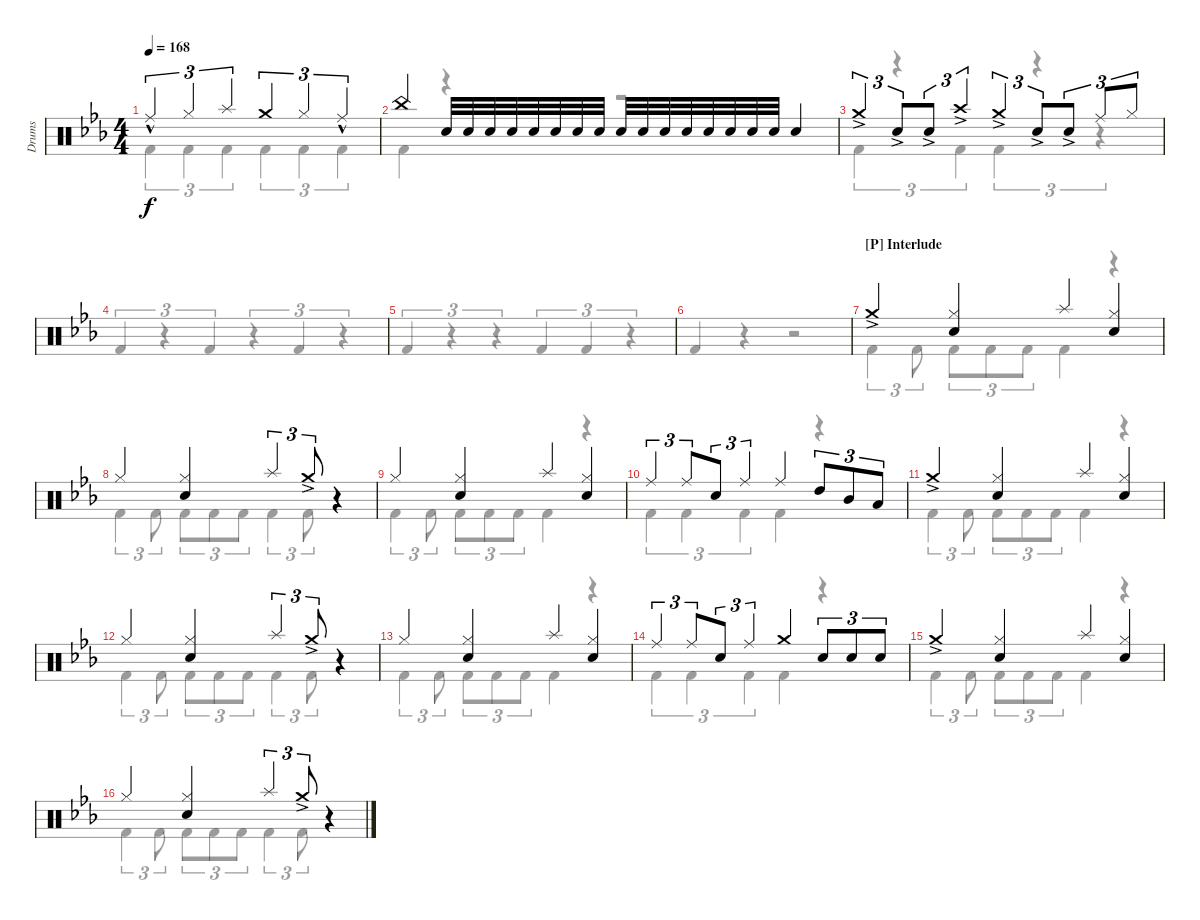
\defaultSystemsLayout 4
\bracketExtendMode groupsimilarinstruments
\otherSystemsTrackNameOrientation horizontal
\track ("Drums" "Drums") {instrument percussion}
\staff {score}
\articulation defaults
\voice
\ts (4 4)
\tempo 168
\clef neutral
\ks eb "Ride (middle)"{hac acc forcenatural}.4{tu (3 2) dy f beam Up} "Hi-Hat (closed)"{acc forcenatural}.4{tu (3 2) beam Up} "Splash (hit)"{acc forcenatural}.4{tu (3 2) beam Up} "Crash medium (hit)"{acc forcenatural}.4{tu (3 2) beam Up} "Hi-Hat (closed)"{acc forcenatural}.4{tu (3 2) beam Up} "Ride (middle)"{hac acc forcenatural}.4{tu (3 2) beam Up}
|
"China (hit)"{acc forcenatural}.4{beam Up} "Snare (hit) 2"{acc forcenatural}.32{beam Up} "Snare (hit) 2"{acc forcenatural}.32{beam Up} "Snare (hit) 2"{acc forcenatural}.32{beam Up} "Snare (hit) 2"{acc forcenatural}.32{beam Up} "Snare (hit) 2"{acc forcenatural}.32{beam Up} "Snare (hit) 2"{acc forcenatural}.32{beam Up} "Snare (hit) 2"{acc forcenatural}.32{beam Up} "Snare (hit) 2"{acc forcenatural}.32{beam Up} "Snare (hit) 2"{acc forcenatural}.32{beam Up} "Snare (hit) 2"{acc forcenatural}.32{beam Up} "Snare (hit) 2"{acc forcenatural}.32{beam Up} "Snare (hit) 2"{acc forcenatural}.32{beam Up} "Snare (hit) 2"{acc forcenatural}.32{beam Up} "Snare (hit) 2"{acc forcenatural}.32{beam Up} "Snare (hit) 2"{acc forcenatural}.32{beam Up} "Snare (hit) 2"{acc forcenatural}.32{beam Up} "Snare (hit) 2"{acc forcenatural}.4{beam Up} |
"Crash medium (hit)"{ac acc forcenatural}.4{tu (3 2) beam Up} "Snare (hit) 2"{ac acc forcenatural}.8{tu (3 2) beam Up beam merge} "Snare (hit) 2"{ac acc forcenatural}.8{tu (3 2) beam Up} "Crash high (hit)"{ac acc forcenatural}.4{tu (3 2) beam Up} "Crash medium (hit)"{ac acc forcenatural}.4{tu (3 2) beam Up} "Snare (hit) 2"{ac acc forcenatural}.8{tu (3 2) beam Up beam merge} "Snare (hit) 2"{ac acc forcenatural}.8{tu (3 2) beam Up beam split} "Ride (middle)"{acc forcenatural}.8{tu (3 2) beam Up} "Hi-Hat (closed)"{acc forcenatural}.8{tu (3 2) beam Up} |
|
|
|
\section ("P" "Interlude")
"Crash medium (hit)"{ac acc forcenatural}.4{beam Up} ("Hi-Hat (closed)"{acc forcenatural} "Snare (hit) 2"{acc forcenatural}).4{beam Up} "Splash (hit)"{acc forcenatural}.4{beam Up} ("Hi-Hat (closed)"{acc forcenatural} "Snare (hit) 2"{acc forcenatural}).4{beam Up} |
"Hi-Hat (closed)"{acc forcenatural}.4{beam Up} ("Hi-Hat (closed)"{acc forcenatural} "Snare (hit) 2"{acc forcenatural}).4{beam Up} "Splash (hit)"{acc forcenatural}.4{tu (3 2) beam Up} "Crash medium (hit)"{ac acc forcenatural}.8{tu (3 2) beam Up} r.4{beam Up} |
"Hi-Hat (closed)"{acc forcenatural}.4{beam Up} ("Hi-Hat (closed)"{acc forcenatural} "Snare (hit) 2"{acc forcenatural}).4{beam Up} "Splash (hit)"{acc forcenatural}.4{beam Up} ("Hi-Hat (closed)"{acc forcenatural} "Snare (hit) 2"{acc forcenatural}).4{beam Up} |
"Ride (middle)"{acc forcenatural}.4{tu (3 2) beam Up} "Ride (middle)"{acc forcenatural}.8{tu (3 2) beam Up beam merge} "Snare (hit) 2"{acc forcenatural}.8{tu (3 2) beam Up} "Ride (middle)"{acc forcenatural}.4{tu (3 2) beam Up} "Ride (middle)"{acc forcenatural}.4{beam Up} "High Tom (hit)"{acc forcenatural}.8{tu (3 2) beam Up} "Mid Tom (hit)"{acc forcenatural}.8{tu (3 2) beam Up} "Low Tom (hit)"{acc forcenatural}.8{tu (3 2) beam Up} |
"Crash medium (hit)"{ac acc forcenatural}.4{beam Up} ("Hi-Hat (closed)"{acc forcenatural} "Snare (hit) 2"{acc forcenatural}).4{beam Up} "Splash (hit)"{acc forcenatural}.4{beam Up} ("Hi-Hat (closed)"{acc forcenatural} "Snare (hit) 2"{acc forcenatural}).4{beam Up} |
"Hi-Hat (closed)"{acc forcenatural}.4{beam Up} ("Hi-Hat (closed)"{acc forcenatural} "Snare (hit) 2"{acc forcenatural}).4{beam Up} "Splash (hit)"{acc forcenatural}.4{tu (3 2) beam Up} "Crash medium (hit)"{ac acc forcenatural}.8{tu (3 2) beam Up} r.4{beam Up} |
"Hi-Hat (closed)"{acc forcenatural}.4{beam Up} ("Hi-Hat (closed)"{acc forcenatural} "Snare (hit) 2"{acc forcenatural}).4{beam Up} "Splash (hit)"{acc forcenatural}.4{beam Up} ("Hi-Hat (closed)"{acc forcenatural} "Snare (hit) 2"{acc forcenatural}).4{beam Up} |
"Ride (middle)"{acc forcenatural}.4{tu (3 2) beam Up} "Ride (middle)"{acc forcenatural}.8{tu (3 2) beam Up beam merge} "Snare (hit) 2"{acc forcenatural}.8{tu (3 2) beam Up} "Ride (middle)"{acc forcenatural}.4{tu (3 2) beam Up} "Crash medium (hit)"{acc forcenatural}.4{beam Up} "Snare (hit) 2"{acc forcenatural}.8{tu (3 2) beam Up} "Snare (hit) 2"{acc forcenatural}.8{tu (3 2) beam Up} "Snare (hit) 2"{acc forcenatural}.8{tu (3 2) beam Up} |
"Crash medium (hit)"{ac acc forcenatural}.4{beam Up} ("Hi-Hat (closed)"{acc forcenatural} "Snare (hit) 2"{acc forcenatural}).4{beam Up} "Splash (hit)"{acc forcenatural}.4{beam Up} ("Hi-Hat (closed)"{acc forcenatural} "Snare (hit) 2"{acc forcenatural}).4{beam Up} |
"Hi-Hat (closed)"{acc forcenatural}.4{beam Up} ("Hi-Hat (closed)"{acc forcenatural} "Snare (hit) 2"{acc forcenatural}).4{beam Up} "Splash (hit)"{acc forcenatural}.4{tu (3 2) beam Up} "Crash medium (hit)"{ac acc forcenatural}.8{tu (3 2) beam Up} r.4{beam Up}
\voice
\clef neutral
\ottava regular
\simile none
\ks eb "Kick (hit) 2"{acc forcenatural}.4{tu (3 2) dy f beam Down} "Kick (hit) 2"{acc forcenatural}.4{tu (3 2) beam Down} "Kick (hit) 2"{acc forcenatural}.4{tu (3 2) beam Down} "Kick (hit) 2"{acc forcenatural}.4{tu (3 2) beam Down} "Kick (hit) 2"{acc forcenatural}.4{tu (3 2) beam Down} "Kick (hit) 2"{acc forcenatural}.4{tu (3 2) beam Down}
|
"Kick (hit) 2"{acc forcenatural}.4{beam Down} r.4{beam Down} r.2{beam Down} |
"Kick (hit) 2"{acc forcenatural}.4{tu (3 2) beam Down} r.4{tu (3 2) beam Down} "Kick (hit) 2"{acc forcenatural}.4{tu (3 2) beam Down} "Kick (hit) 2"{acc forcenatural}.4{tu (3 2) beam Down} r.4{tu (3 2) beam Down} r.4{tu (3 2) beam Down} |
"Kick (hit) 2"{acc forcenatural}.4{tu (3 2) beam Up} r.4{tu (3 2) beam Up} "Kick (hit) 2"{acc forcenatural}.4{tu (3 2) beam Up} r.4{tu (3 2) beam Up} "Kick (hit) 2"{acc forcenatural}.4{tu (3 2) beam Up} r.4{tu (3 2) beam Up} |
"Kick (hit) 2"{acc forcenatural}.4{tu (3 2) beam Up} r.4{tu (3 2) beam Up} r.4{tu (3 2) beam Up} "Kick (hit) 2"{acc forcenatural}.4{tu (3 2) beam Up} "Kick (hit) 2"{acc forcenatural}.4{tu (3 2) beam Up} r.4{tu (3 2) beam Up} |
"Kick (hit) 2"{acc forcenatural}.4{beam Up} r.4{beam Up} r.2{beam Up} |
"Kick (hit) 2"{acc forcenatural}.4{tu (3 2) beam Down} "Kick (hit) 2"{acc forcenatural}.8{tu (3 2) beam Down} "Kick (hit) 2"{acc forcenatural}.8{tu (3 2) beam Down} "Kick (hit) 2"{acc forcenatural}.8{tu (3 2) beam Down} "Kick (hit) 2"{acc forcenatural}.8{tu (3 2) beam Down} "Kick (hit) 2"{acc forcenatural}.4{beam Down} r.4{beam Down} |
"Kick (hit) 2"{acc forcenatural}.4{tu (3 2) beam Down} "Kick (hit) 2"{acc forcenatural}.8{tu (3 2) beam Down} "Kick (hit) 2"{acc forcenatural}.8{tu (3 2) beam Down} "Kick (hit) 2"{acc forcenatural}.8{tu (3 2) beam Down} "Kick (hit) 2"{acc forcenatural}.8{tu (3 2) beam Down} "Kick (hit) 2"{acc forcenatural}.4{tu (3 2) beam Down} "Kick (hit) 2"{acc forcenatural}.8{tu (3 2) beam Down} r.4{beam Down} |
"Kick (hit) 2"{acc forcenatural}.4{tu (3 2) beam Down} "Kick (hit) 2"{acc forcenatural}.8{tu (3 2) beam Down} "Kick (hit) 2"{acc forcenatural}.8{tu (3 2) beam Down} "Kick (hit) 2"{acc forcenatural}.8{tu (3 2) beam Down} "Kick (hit) 2"{acc forcenatural}.8{tu (3 2) beam Down} "Kick (hit) 2"{acc forcenatural}.4{beam Down} r.4{beam Down} |
"Kick (hit) 2"{acc forcenatural}.4{tu (3 2) beam Down} "Kick (hit) 2"{acc forcenatural}.4{tu (3 2) beam Down} "Kick (hit) 2"{acc forcenatural}.4{tu (3 2) beam Down} "Kick (hit) 2"{acc forcenatural}.4{beam Down} r.4{beam Down} |
"Kick (hit) 2"{acc forcenatural}.4{tu (3 2) beam Down} "Kick (hit) 2"{acc forcenatural}.8{tu (3 2) beam Down} "Kick (hit) 2"{acc forcenatural}.8{tu (3 2) beam Down} "Kick (hit) 2"{acc forcenatural}.8{tu (3 2) beam Down} "Kick (hit) 2"{acc forcenatural}.8{tu (3 2) beam Down} "Kick (hit) 2"{acc forcenatural}.4{beam Down} r.4{beam Down} |
"Kick (hit) 2"{acc forcenatural}.4{tu (3 2) beam Down} "Kick (hit) 2"{acc forcenatural}.8{tu (3 2) beam Down} "Kick (hit) 2"{acc forcenatural}.8{tu (3 2) beam Down} "Kick (hit) 2"{acc forcenatural}.8{tu (3 2) beam Down} "Kick (hit) 2"{acc forcenatural}.8{tu (3 2) beam Down} "Kick (hit) 2"{acc forcenatural}.4{tu (3 2) beam Down} "Kick (hit) 2"{acc forcenatural}.8{tu (3 2) beam Down} r.4{beam Down} |
"Kick (hit) 2"{acc forcenatural}.4{tu (3 2) beam Down} "Kick (hit) 2"{acc forcenatural}.8{tu (3 2) beam Down} "Kick (hit) 2"{acc forcenatural}.8{tu (3 2) beam Down} "Kick (hit) 2"{acc forcenatural}.8{tu (3 2) beam Down} "Kick (hit) 2"{acc forcenatural}.8{tu (3 2) beam Down} "Kick (hit) 2"{acc forcenatural}.4{beam Down} r.4{beam Down} |
"Kick (hit) 2"{acc forcenatural}.4{tu (3 2) beam Down} "Kick (hit) 2"{acc forcenatural}.4{tu (3 2) beam Down} "Kick (hit) 2"{acc forcenatural}.4{tu (3 2) beam Down} "Kick (hit) 2"{acc forcenatural}.4{beam Down} r.4{beam Down} |
"Kick (hit) 2"{acc forcenatural}.4{tu (3 2) beam Down} "Kick (hit) 2"{acc forcenatural}.8{tu (3 2) beam Down} "Kick (hit) 2"{acc forcenatural}.8{tu (3 2) beam Down} "Kick (hit) 2"{acc forcenatural}.8{tu (3 2) beam Down} "Kick (hit) 2"{acc forcenatural}.8{tu (3 2) beam Down} "Kick (hit) 2"{acc forcenatural}.4{beam Down} r.4{beam Down} |
"Kick (hit) 2"{acc forcenatural}.4{tu (3 2) beam Down} "Kick (hit) 2"{acc forcenatural}.8{tu (3 2) beam Down} "Kick (hit) 2"{acc forcenatural}.8{tu (3 2) beam Down} "Kick (hit) 2"{acc forcenatural}.8{tu (3 2) beam Down} "Kick (hit) 2"{acc forcenatural}.8{tu (3 2) beam Down} "Kick (hit) 2"{acc forcenatural}.4{tu (3 2) beam Down} "Kick (hit) 2"{acc forcenatural}.8{tu (3 2) beam Down} r.4{beam Down}
